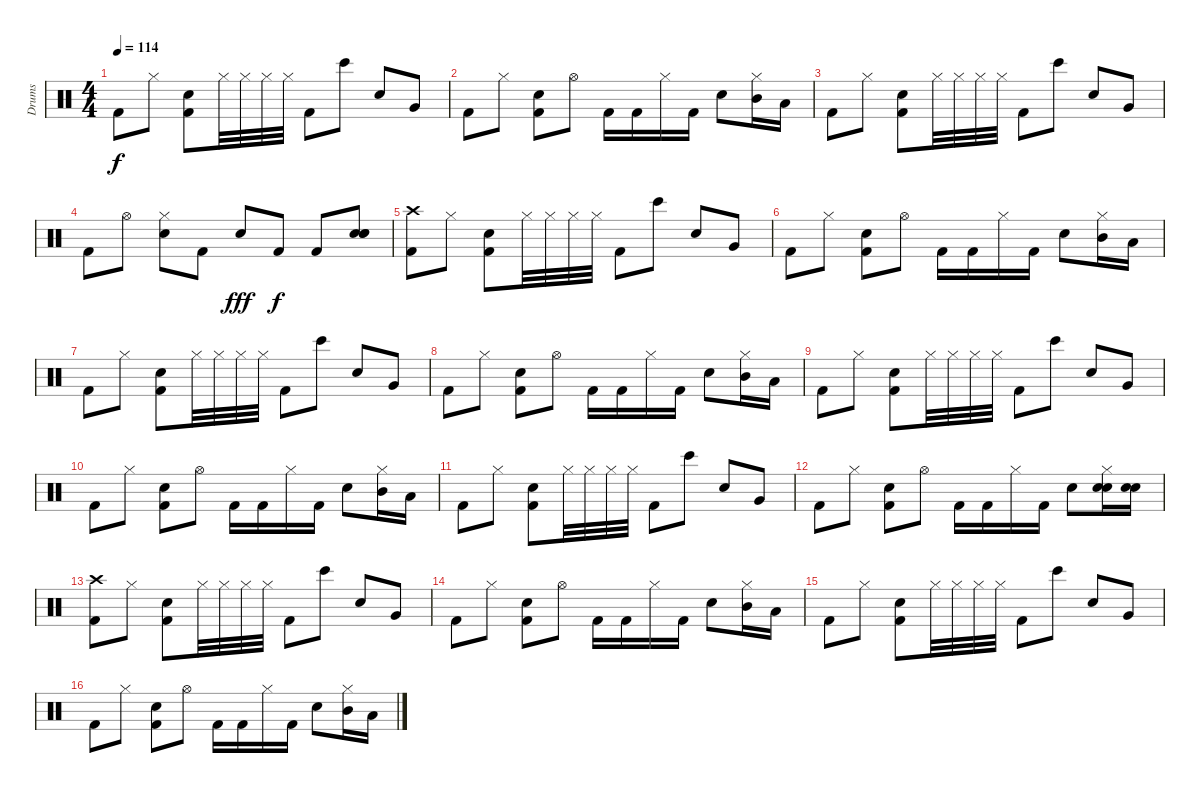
\track ("Drums               " "Drums     ") {instrument percussion}
\staff {score}
\articulation defaults
\ts (4 4)
\tempo 114
\clef neutral
\ks c "Kick (hit) 2".8{dy f} "Hi-Hat (closed)".8
("Snare (hit) 2" "Kick (hit) 2").8 "Hi-Hat (closed)".32 "Hi-Hat (closed)".32 "Hi-Hat (closed)".32 "Hi-Hat (closed)".32 "Kick (hit) 2".8 "Bongo High (hit)".8 "Snare (hit) 2".8 "Very Low Tom (hit)".8 |
"Kick (hit) 2".8 "Hi-Hat (closed)".8 ("Snare (hit) 2" "Kick (hit) 2").8 "Hi-Hat (open)".8 "Kick (hit) 2".16 "Kick (hit) 2".16 "Hi-Hat (closed)".16 "Kick (hit) 2".16 "Snare (hit) 2".8 ("Hi-Hat (closed)" "Mid Tom (hit)").16 "Low Tom (hit)".16 |
"Kick (hit) 2".8 "Hi-Hat (closed)".8 ("Snare (hit) 2" "Kick (hit) 2").8 "Hi-Hat (closed)".32 "Hi-Hat (closed)".32 "Hi-Hat (closed)".32 "Hi-Hat (closed)".32 "Kick (hit) 2".8 "Bongo High (hit)".8 "Snare (hit) 2".8 "Very Low Tom (hit)".8 |
"Kick (hit) 2".8 "Hi-Hat (open)".8 ("Hi-Hat (closed)" "Snare (hit) 2").8 "Kick (hit) 2".8 "Snare (hit) 2".8{dy fff} "Kick (hit) 2".8{dy f} "Kick (hit) 2".8 ("Snare (hit) 2" "Snare (hit) 2" "Snare (hit) 2").8 |
("Crash high (hit)" "Kick (hit) 2").8 "Hi-Hat (closed)".8 ("Snare (hit) 2" "Kick (hit) 2").8 "Hi-Hat (closed)".32 "Hi-Hat (closed)".32 "Hi-Hat (closed)".32 "Hi-Hat (closed)".32 "Kick (hit) 2".8 "Bongo High (hit)".8 "Snare (hit) 2".8 "Very Low Tom (hit)".8 |
"Kick (hit) 2".8 "Hi-Hat (closed)".8 ("Snare (hit) 2" "Kick (hit) 2").8 "Hi-Hat (open)".8 "Kick (hit) 2".16 "Kick (hit) 2".16 "Hi-Hat (closed)".16 "Kick (hit) 2".16 "Snare (hit) 2".8 ("Hi-Hat (closed)" "Mid Tom (hit)").16 "Low Tom (hit)".16 |
"Kick (hit) 2".8 "Hi-Hat (closed)".8 ("Snare (hit) 2" "Kick (hit) 2").8 "Hi-Hat (closed)".32 "Hi-Hat (closed)".32 "Hi-Hat (closed)".32 "Hi-Hat (closed)".32 "Kick (hit) 2".8 "Bongo High (hit)".8 "Snare (hit) 2".8 "Very Low Tom (hit)".8 |
"Kick (hit) 2".8 "Hi-Hat (closed)".8 ("Snare (hit) 2" "Kick (hit) 2").8 "Hi-Hat (open)".8 "Kick (hit) 2".16 "Kick (hit) 2".16 "Hi-Hat (closed)".16 "Kick (hit) 2".16 "Snare (hit) 2".8 ("Hi-Hat (closed)" "Mid Tom (hit)").16 "Low Tom (hit)".16 |
"Kick (hit) 2".8 "Hi-Hat (closed)".8 ("Snare (hit) 2" "Kick (hit) 2").8 "Hi-Hat (closed)".32 "Hi-Hat (closed)".32 "Hi-Hat (closed)".32 "Hi-Hat (closed)".32 "Kick (hit) 2".8 "Bongo High (hit)".8 "Snare (hit) 2".8 "Very Low Tom (hit)".8 |
"Kick (hit) 2".8 "Hi-Hat (closed)".8 ("Snare (hit) 2" "Kick (hit) 2").8 "Hi-Hat (open)".8 "Kick (hit) 2".16 "Kick (hit) 2".16 "Hi-Hat (closed)".16 "Kick (hit) 2".16 "Snare (hit) 2".8 ("Hi-Hat (closed)" "Mid Tom (hit)").16 "Low Tom (hit)".16 |
"Kick (hit) 2".8 "Hi-Hat (closed)".8 ("Snare (hit) 2" "Kick (hit) 2").8 "Hi-Hat (closed)".32 "Hi-Hat (closed)".32 "Hi-Hat (closed)".32 "Hi-Hat (closed)".32 "Kick (hit) 2".8 "Bongo High (hit)".8 "Snare (hit) 2".8 "Very Low Tom (hit)".8 |
"Kick (hit) 2".8 "Hi-Hat (closed)".8 ("Snare (hit) 2" "Kick (hit) 2").8 "Hi-Hat (open)".8 "Kick (hit) 2".16 "Kick (hit) 2".16 "Hi-Hat (closed)".16 "Kick (hit) 2".16 "Snare (hit) 2".8 ("Hi-Hat (closed)" "Snare (hit) 2" "Snare (hit) 2").16 ("Snare (hit) 2" "Snare (hit) 2").16 |
("Crash high (hit)" "Kick (hit) 2").8 "Hi-Hat (closed)".8 ("Snare (hit) 2" "Kick (hit) 2").8 "Hi-Hat (closed)".32 "Hi-Hat (closed)".32 "Hi-Hat (closed)".32 "Hi-Hat (closed)".32 "Kick (hit) 2".8 "Bongo High (hit)".8 "Snare (hit) 2".8 "Very Low Tom (hit)".8 |
"Kick (hit) 2".8 "Hi-Hat (closed)".8 ("Snare (hit) 2" "Kick (hit) 2").8 "Hi-Hat (open)".8 "Kick (hit) 2".16 "Kick (hit) 2".16 "Hi-Hat (closed)".16 "Kick (hit) 2".16 "Snare (hit) 2".8 ("Hi-Hat (closed)" "Mid Tom (hit)").16 "Low Tom (hit)".16 |
"Kick (hit) 2".8 "Hi-Hat (closed)".8 ("Snare (hit) 2" "Kick (hit) 2").8 "Hi-Hat (closed)".32 "Hi-Hat (closed)".32 "Hi-Hat (closed)".32 "Hi-Hat (closed)".32 "Kick (hit) 2".8 "Bongo High (hit)".8 "Snare (hit) 2".8 "Very Low Tom (hit)".8 |
"Kick (hit) 2".8 "Hi-Hat (closed)".8 ("Snare (hit) 2" "Kick (hit) 2").8 "Hi-Hat (open)".8 "Kick (hit) 2".16 "Kick (hit) 2".16 "Hi-Hat (closed)".16 "Kick (hit) 2".16 "Snare (hit) 2".8 ("Hi-Hat (closed)" "Mid Tom (hit)").16 "Low Tom (hit)".16
